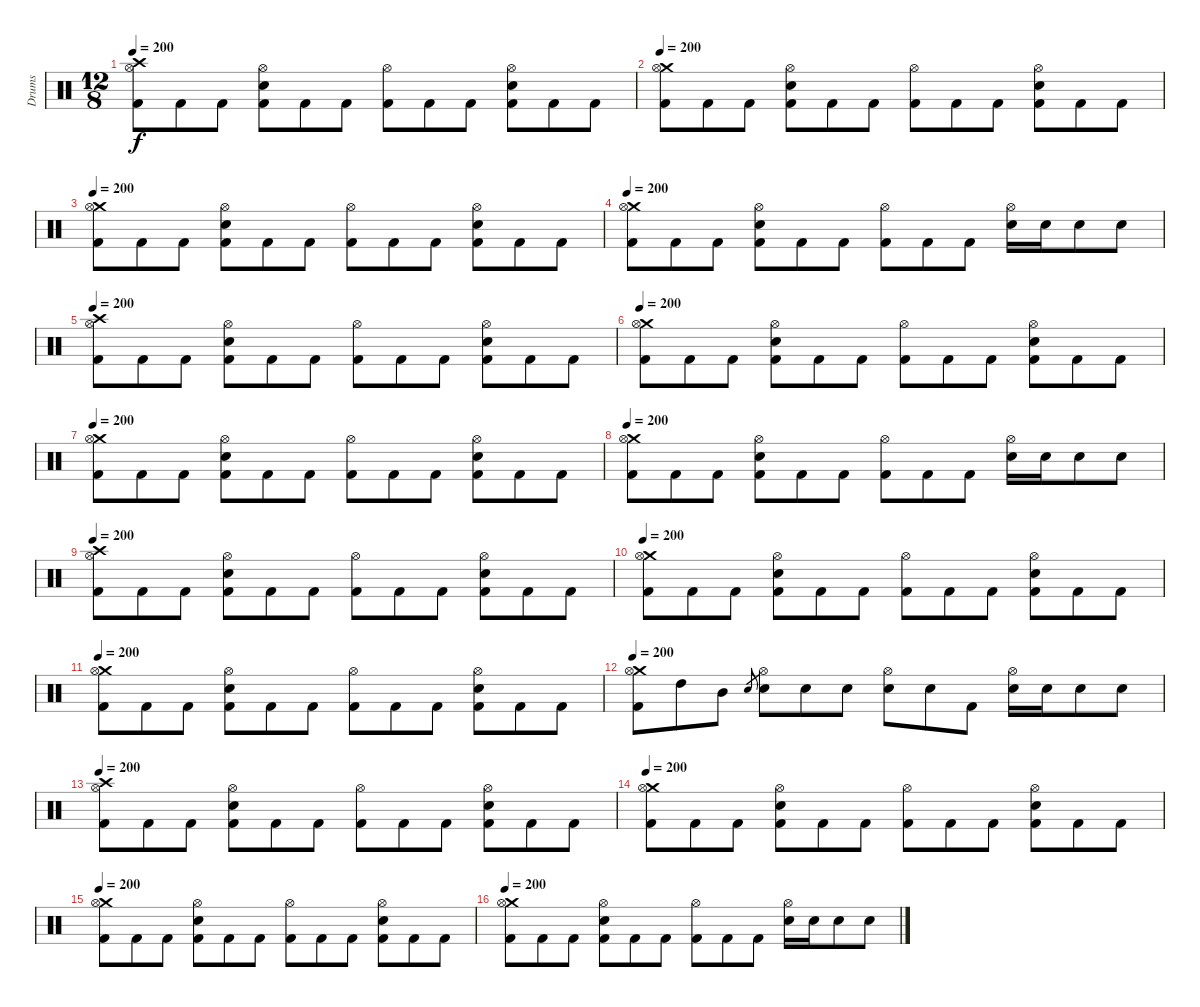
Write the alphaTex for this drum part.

\track ("Drums" "Drums") {instrument percussion}
\staff {score}
\articulation defaults
\ts (12 8)
\tempo 200
\clef neutral
\ks c
("Crash high (hit)" "Hi-Hat (open)" "Kick (hit) 2").8{dy f} "Kick (hit) 2".8 "Kick (hit) 2".8 ("Hi-Hat (open)" "Electric Snare (hit)" "Kick (hit) 2").8 "Kick (hit) 2".8 "Kick (hit) 2".8 ("Hi-Hat (open)" "Kick (hit) 2").8 "Kick (hit) 2".8 "Kick (hit) 2".8 ("Hi-Hat (open)" "Electric Snare (hit)" "Kick (hit) 2").8 "Kick (hit) 2".8 "Kick (hit) 2".8 |
\tempo 200
("Crash medium (hit)" "Hi-Hat (open)" "Kick (hit) 2").8 "Kick (hit) 2".8 "Kick (hit) 2".8 ("Hi-Hat (open)" "Electric Snare (hit)" "Kick (hit) 2").8 "Kick (hit) 2".8 "Kick (hit) 2".8 ("Hi-Hat (open)" "Kick (hit) 2").8 "Kick (hit) 2".8 "Kick (hit) 2".8 ("Hi-Hat (open)" "Electric Snare (hit)" "Kick (hit) 2").8 "Kick (hit) 2".8 "Kick (hit) 2".8 |
\tempo 200
("Crash medium (hit)" "Hi-Hat (open)" "Kick (hit) 2").8 "Kick (hit) 2".8 "Kick (hit) 2".8 ("Hi-Hat (open)" "Electric Snare (hit)" "Kick (hit) 2").8 "Kick (hit) 2".8 "Kick (hit) 2".8 ("Hi-Hat (open)" "Kick (hit) 2").8 "Kick (hit) 2".8 "Kick (hit) 2".8 ("Hi-Hat (open)" "Electric Snare (hit)" "Kick (hit) 2").8 "Kick (hit) 2".8 "Kick (hit) 2".8 |
\tempo 200
("Crash medium (hit)" "Hi-Hat (open)" "Kick (hit) 2").8 "Kick (hit) 2".8 "Kick (hit) 2".8 ("Hi-Hat (open)" "Electric Snare (hit)" "Kick (hit) 2").8 "Kick (hit) 2".8 "Kick (hit) 2".8 ("Hi-Hat (open)" "Kick (hit) 2").8 "Kick (hit) 2".8 "Kick (hit) 2".8 ("Hi-Hat (open)" "Electric Snare (hit)").16 "Electric Snare (hit)".16 "Electric Snare (hit)".8 "Electric Snare (hit)".8 |
\tempo 200
("Crash high (hit)" "Hi-Hat (open)" "Kick (hit) 2").8 "Kick (hit) 2".8 "Kick (hit) 2".8 ("Hi-Hat (open)" "Electric Snare (hit)" "Kick (hit) 2").8 "Kick (hit) 2".8 "Kick (hit) 2".8 ("Hi-Hat (open)" "Kick (hit) 2").8 "Kick (hit) 2".8 "Kick (hit) 2".8 ("Hi-Hat (open)" "Electric Snare (hit)" "Kick (hit) 2").8 "Kick (hit) 2".8 "Kick (hit) 2".8 |
\tempo 200
("Crash medium (hit)" "Hi-Hat (open)" "Kick (hit) 2").8 "Kick (hit) 2".8 "Kick (hit) 2".8 ("Hi-Hat (open)" "Electric Snare (hit)" "Kick (hit) 2").8 "Kick (hit) 2".8 "Kick (hit) 2".8 ("Hi-Hat (open)" "Kick (hit) 2").8 "Kick (hit) 2".8 "Kick (hit) 2".8 ("Hi-Hat (open)" "Electric Snare (hit)" "Kick (hit) 2").8 "Kick (hit) 2".8 "Kick (hit) 2".8 |
\tempo 200
("Crash medium (hit)" "Hi-Hat (open)" "Kick (hit) 2").8 "Kick (hit) 2".8 "Kick (hit) 2".8 ("Hi-Hat (open)" "Electric Snare (hit)" "Kick (hit) 2").8 "Kick (hit) 2".8 "Kick (hit) 2".8 ("Hi-Hat (open)" "Kick (hit) 2").8 "Kick (hit) 2".8 "Kick (hit) 2".8 ("Hi-Hat (open)" "Electric Snare (hit)" "Kick (hit) 2").8 "Kick (hit) 2".8 "Kick (hit) 2".8 |
\tempo 200
("Crash medium (hit)" "Hi-Hat (open)" "Kick (hit) 2").8 "Kick (hit) 2".8 "Kick (hit) 2".8 ("Hi-Hat (open)" "Electric Snare (hit)" "Kick (hit) 2").8 "Kick (hit) 2".8 "Kick (hit) 2".8 ("Hi-Hat (open)" "Kick (hit) 2").8 "Kick (hit) 2".8 "Kick (hit) 2".8 ("Hi-Hat (open)" "Electric Snare (hit)").16 "Electric Snare (hit)".16 "Electric Snare (hit)".8 "Electric Snare (hit)".8 |
\tempo 200
("Crash high (hit)" "Hi-Hat (open)" "Kick (hit) 2").8 "Kick (hit) 2".8 "Kick (hit) 2".8 ("Hi-Hat (open)" "Electric Snare (hit)" "Kick (hit) 2").8 "Kick (hit) 2".8 "Kick (hit) 2".8 ("Hi-Hat (open)" "Kick (hit) 2").8 "Kick (hit) 2".8 "Kick (hit) 2".8 ("Hi-Hat (open)" "Electric Snare (hit)" "Kick (hit) 2").8 "Kick (hit) 2".8 "Kick (hit) 2".8 |
\tempo 200
("Crash medium (hit)" "Hi-Hat (open)" "Kick (hit) 2").8 "Kick (hit) 2".8 "Kick (hit) 2".8 ("Hi-Hat (open)" "Electric Snare (hit)" "Kick (hit) 2").8 "Kick (hit) 2".8 "Kick (hit) 2".8 ("Hi-Hat (open)" "Kick (hit) 2").8 "Kick (hit) 2".8 "Kick (hit) 2".8 ("Hi-Hat (open)" "Electric Snare (hit)" "Kick (hit) 2").8 "Kick (hit) 2".8 "Kick (hit) 2".8 |
\tempo 200
("Crash medium (hit)" "Hi-Hat (open)" "Kick (hit) 2").8 "Kick (hit) 2".8 "Kick (hit) 2".8 ("Hi-Hat (open)" "Electric Snare (hit)" "Kick (hit) 2").8 "Kick (hit) 2".8 "Kick (hit) 2".8 ("Hi-Hat (open)" "Kick (hit) 2").8 "Kick (hit) 2".8 "Kick (hit) 2".8 ("Hi-Hat (open)" "Electric Snare (hit)" "Kick (hit) 2").8 "Kick (hit) 2".8 "Kick (hit) 2".8 |
\tempo 200
("Crash medium (hit)" "Hi-Hat (open)" "Kick (hit) 2").8 "High Tom (hit)".8 "Mid Tom (hit)".8 "Electric Snare (hit)".8{gr} ("Hi-Hat (open)" "Electric Snare (hit)").8 "Electric Snare (hit)".8 "Electric Snare (hit)".8 ("Hi-Hat (open)" "Electric Snare (hit)").8 "Electric Snare (hit)".8 "Kick (hit) 2".8 ("Hi-Hat (open)" "Electric Snare (hit)").16 "Electric Snare (hit)".16 "Electric Snare (hit)".8 "Electric Snare (hit)".8 |
\tempo 200
("Crash high (hit)" "Hi-Hat (open)" "Kick (hit) 2").8 "Kick (hit) 2".8 "Kick (hit) 2".8 ("Hi-Hat (open)" "Electric Snare (hit)" "Kick (hit) 2").8 "Kick (hit) 2".8 "Kick (hit) 2".8 ("Hi-Hat (open)" "Kick (hit) 2").8 "Kick (hit) 2".8 "Kick (hit) 2".8 ("Hi-Hat (open)" "Electric Snare (hit)" "Kick (hit) 2").8 "Kick (hit) 2".8 "Kick (hit) 2".8 |
\tempo 200
("Crash medium (hit)" "Hi-Hat (open)" "Kick (hit) 2").8 "Kick (hit) 2".8 "Kick (hit) 2".8 ("Hi-Hat (open)" "Electric Snare (hit)" "Kick (hit) 2").8 "Kick (hit) 2".8 "Kick (hit) 2".8 ("Hi-Hat (open)" "Kick (hit) 2").8 "Kick (hit) 2".8 "Kick (hit) 2".8 ("Hi-Hat (open)" "Electric Snare (hit)" "Kick (hit) 2").8 "Kick (hit) 2".8 "Kick (hit) 2".8 |
\tempo 200
("Crash medium (hit)" "Hi-Hat (open)" "Kick (hit) 2").8 "Kick (hit) 2".8 "Kick (hit) 2".8 ("Hi-Hat (open)" "Electric Snare (hit)" "Kick (hit) 2").8 "Kick (hit) 2".8 "Kick (hit) 2".8 ("Hi-Hat (open)" "Kick (hit) 2").8 "Kick (hit) 2".8 "Kick (hit) 2".8 ("Hi-Hat (open)" "Electric Snare (hit)" "Kick (hit) 2").8 "Kick (hit) 2".8 "Kick (hit) 2".8 |
\tempo 200
("Crash medium (hit)" "Hi-Hat (open)" "Kick (hit) 2").8 "Kick (hit) 2".8 "Kick (hit) 2".8 ("Hi-Hat (open)" "Electric Snare (hit)" "Kick (hit) 2").8 "Kick (hit) 2".8 "Kick (hit) 2".8 ("Hi-Hat (open)" "Kick (hit) 2").8 "Kick (hit) 2".8 "Kick (hit) 2".8 ("Hi-Hat (open)" "Electric Snare (hit)").16 "Electric Snare (hit)".16 "Electric Snare (hit)".8 "Electric Snare (hit)".8
